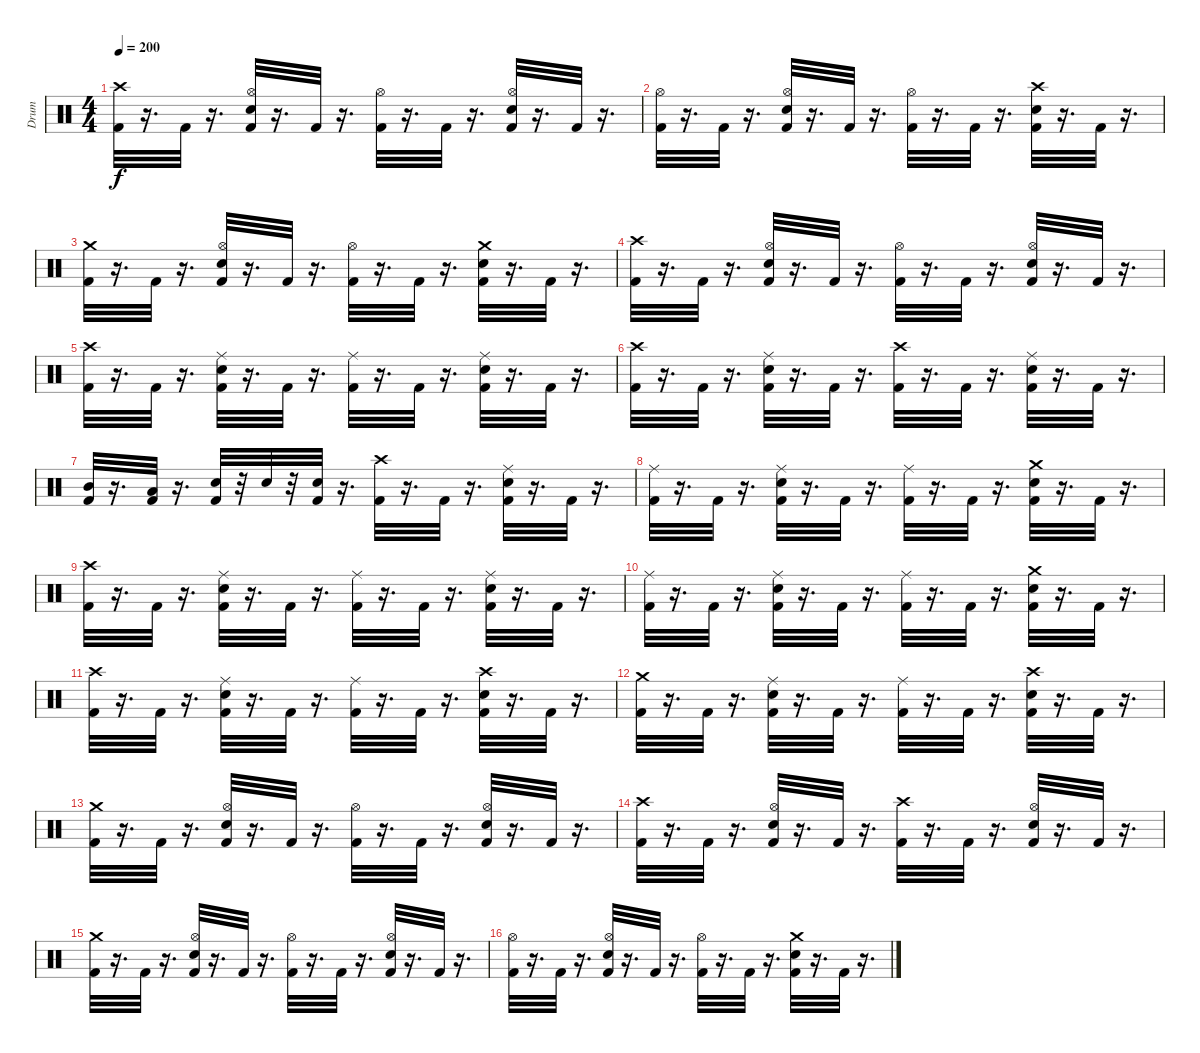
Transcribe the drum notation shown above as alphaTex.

\track ("Drum" "Drum") {instrument percussion}
\staff {score}
\articulation defaults
\ts (4 4)
\tempo 200
\clef neutral
\ks c
("Crash high (hit)" "Kick (hit) 2").32{dy f} r.16{d} "Kick (hit) 2".32 r.16{d} ("Hi-Hat (open)" "Snare (hit) 2" "Kick (hit) 2").32 r.16{d} "Kick (hit) 2".32 r.16{d} ("Hi-Hat (open)" "Kick (hit) 2").32 r.16{d} "Kick (hit) 2".32 r.16{d} ("Hi-Hat (open)" "Snare (hit) 2" "Kick (hit) 2").32 r.16{d} "Kick (hit) 2".32 r.16{d} |
("Hi-Hat (open)" "Kick (hit) 2").32 r.16{d} "Kick (hit) 2".32 r.16{d} ("Hi-Hat (open)" "Snare (hit) 2" "Kick (hit) 2").32 r.16{d} "Kick (hit) 2".32 r.16{d} ("Hi-Hat (open)" "Kick (hit) 2").32 r.16{d} "Kick (hit) 2".32 r.16{d} ("Crash high (hit)" "Snare (hit) 2" "Kick (hit) 2").32 r.16{d} "Kick (hit) 2".32 r.16{d} |
("Crash medium (hit)" "Kick (hit) 2").32 r.16{d} "Kick (hit) 2".32 r.16{d} ("Hi-Hat (open)" "Snare (hit) 2" "Kick (hit) 2").32 r.16{d} "Kick (hit) 2".32 r.16{d} ("Hi-Hat (open)" "Kick (hit) 2").32 r.16{d} "Kick (hit) 2".32 r.16{d} ("Crash medium (hit)" "Snare (hit) 2" "Kick (hit) 2").32 r.16{d} "Kick (hit) 2".32 r.16{d} |
("Crash high (hit)" "Kick (hit) 2").32 r.16{d} "Kick (hit) 2".32 r.16{d} ("Hi-Hat (open)" "Snare (hit) 2" "Kick (hit) 2").32 r.16{d} "Kick (hit) 2".32 r.16{d} ("Hi-Hat (open)" "Kick (hit) 2").32 r.16{d} "Kick (hit) 2".32 r.16{d} ("Hi-Hat (open)" "Snare (hit) 2" "Kick (hit) 2").32 r.16{d} "Kick (hit) 2".32 r.16{d} |
("Crash high (hit)" "Kick (hit) 2").32 r.16{d} "Kick (hit) 2".32 r.16{d} ("Ride (middle)" "Snare (hit) 2" "Kick (hit) 2").32 r.16{d} "Kick (hit) 2".32 r.16{d} ("Ride (middle)" "Kick (hit) 2").32 r.16{d} "Kick (hit) 2".32 r.16{d} ("Ride (middle)" "Snare (hit) 2" "Kick (hit) 2").32 r.16{d} "Kick (hit) 2".32 r.16{d} |
("Crash high (hit)" "Kick (hit) 2").32 r.16{d} "Kick (hit) 2".32 r.16{d} ("Ride (middle)" "Snare (hit) 2" "Kick (hit) 2").32 r.16{d} "Kick (hit) 2".32 r.16{d} ("Crash high (hit)" "Kick (hit) 2").32 r.16{d} "Kick (hit) 2".32 r.16{d} ("Ride (middle)" "Snare (hit) 2" "Kick (hit) 2").32 r.16{d} "Kick (hit) 2".32 r.16{d} |
("Mid Tom (hit)" "Kick (hit) 2").32 r.16{d} ("Low Tom (hit)" "Kick (hit) 2").32 r.16{d} ("Snare (hit) 2" "Kick (hit) 2").32 r.32 "Snare (hit) 2".32 r.32 ("Snare (hit) 2" "Kick (hit) 2").32 r.16{d} ("Crash high (hit)" "Kick (hit) 2").32 r.16{d} "Kick (hit) 2".32 r.16{d} ("Ride (middle)" "Snare (hit) 2" "Kick (hit) 2").32 r.16{d} "Kick (hit) 2".32 r.16{d} |
("Ride (middle)" "Kick (hit) 2").32 r.16{d} "Kick (hit) 2".32 r.16{d} ("Ride (middle)" "Snare (hit) 2" "Kick (hit) 2").32 r.16{d} "Kick (hit) 2".32 r.16{d} ("Ride (middle)" "Kick (hit) 2").32 r.16{d} "Kick (hit) 2".32 r.16{d} ("Crash medium (hit)" "Snare (hit) 2" "Kick (hit) 2").32 r.16{d} "Kick (hit) 2".32 r.16{d} |
("Crash high (hit)" "Kick (hit) 2").32 r.16{d} "Kick (hit) 2".32 r.16{d} ("Ride (middle)" "Snare (hit) 2" "Kick (hit) 2").32 r.16{d} "Kick (hit) 2".32 r.16{d} ("Ride (middle)" "Kick (hit) 2").32 r.16{d} "Kick (hit) 2".32 r.16{d} ("Ride (middle)" "Snare (hit) 2" "Kick (hit) 2").32 r.16{d} "Kick (hit) 2".32 r.16{d} |
("Ride (middle)" "Kick (hit) 2").32 r.16{d} "Kick (hit) 2".32 r.16{d} ("Snare (hit) 2" "Ride (middle)" "Kick (hit) 2").32 r.16{d} "Kick (hit) 2".32 r.16{d} ("Ride (middle)" "Kick (hit) 2").32 r.16{d} "Kick (hit) 2".32 r.16{d} ("Crash medium (hit)" "Snare (hit) 2" "Kick (hit) 2").32 r.16{d} "Kick (hit) 2".32 r.16{d} |
("Crash high (hit)" "Kick (hit) 2").32 r.16{d} "Kick (hit) 2".32 r.16{d} ("Ride (middle)" "Snare (hit) 2" "Kick (hit) 2").32 r.16{d} "Kick (hit) 2".32 r.16{d} ("Ride (middle)" "Kick (hit) 2").32 r.16{d} "Kick (hit) 2".32 r.16{d} ("Crash high (hit)" "Snare (hit) 2" "Kick (hit) 2").32 r.16{d} "Kick (hit) 2".32 r.16{d} |
("Crash medium (hit)" "Kick (hit) 2").32 r.16{d} "Kick (hit) 2".32 r.16{d} ("Ride (middle)" "Snare (hit) 2" "Kick (hit) 2").32 r.16{d} "Kick (hit) 2".32 r.16{d} ("Ride (middle)" "Kick (hit) 2").32 r.16{d} "Kick (hit) 2".32 r.16{d} ("Crash high (hit)" "Snare (hit) 2" "Kick (hit) 2").32 r.16{d} "Kick (hit) 2".32 r.16{d} |
("Crash medium (hit)" "Kick (hit) 2").32 r.16{d} "Kick (hit) 2".32 r.16{d} ("Hi-Hat (open)" "Snare (hit) 2" "Kick (hit) 2").32 r.16{d} "Kick (hit) 2".32 r.16{d} ("Hi-Hat (open)" "Kick (hit) 2").32 r.16{d} "Kick (hit) 2".32 r.16{d} ("Hi-Hat (open)" "Snare (hit) 2" "Kick (hit) 2").32 r.16{d} "Kick (hit) 2".32 r.16{d} |
("Crash high (hit)" "Kick (hit) 2").32 r.16{d} "Kick (hit) 2".32 r.16{d} ("Hi-Hat (open)" "Snare (hit) 2" "Kick (hit) 2").32 r.16{d} "Kick (hit) 2".32 r.16{d} ("Crash high (hit)" "Kick (hit) 2").32 r.16{d} "Kick (hit) 2".32 r.16{d} ("Hi-Hat (open)" "Snare (hit) 2" "Kick (hit) 2").32 r.16{d} "Kick (hit) 2".32 r.16{d} |
("Crash medium (hit)" "Kick (hit) 2").32 r.16{d} "Kick (hit) 2".32 r.16{d} ("Hi-Hat (open)" "Snare (hit) 2" "Kick (hit) 2").32 r.16{d} "Kick (hit) 2".32 r.16{d} ("Hi-Hat (open)" "Kick (hit) 2").32 r.16{d} "Kick (hit) 2".32 r.16{d} ("Hi-Hat (open)" "Snare (hit) 2" "Kick (hit) 2").32 r.16{d} "Kick (hit) 2".32 r.16{d} |
("Hi-Hat (open)" "Kick (hit) 2").32 r.16{d} "Kick (hit) 2".32 r.16{d} ("Hi-Hat (open)" "Snare (hit) 2" "Kick (hit) 2").32 r.16{d} "Kick (hit) 2".32 r.16{d} ("Hi-Hat (open)" "Kick (hit) 2").32 r.16{d} "Kick (hit) 2".32 r.16{d} ("Crash medium (hit)" "Snare (hit) 2" "Kick (hit) 2").32 r.16{d} "Kick (hit) 2".32 r.16{d}
